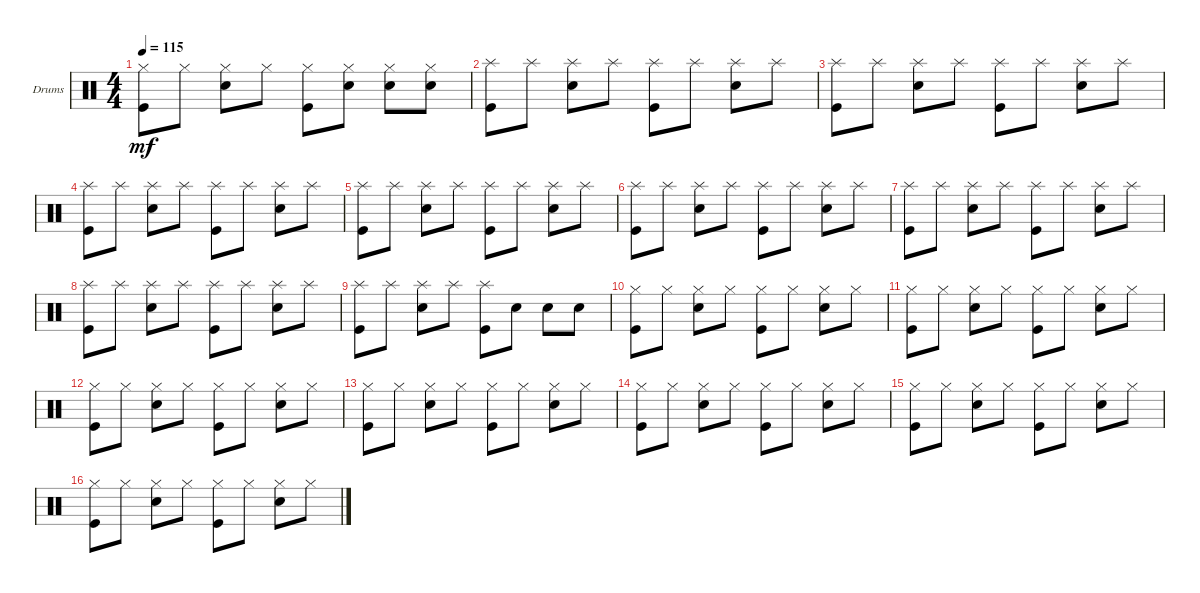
\defaultSystemsLayout 4
\bracketExtendMode groupsimilarinstruments
\firstSystemTrackNameOrientation horizontal
\otherSystemsTrackNameOrientation horizontal
\track ("Drumkit" "Drums") {instrument percussion}
\staff {score}
\articulation defaults
\ts (4 4)
\tempo 115
\clef neutral
\ks c
("Kick (hit)" "Hi-Hat (closed)").8{dy mf} "Hi-Hat (closed)".8 ("Snare (hit) 2" "Hi-Hat (closed)").8 "Hi-Hat (closed)".8 ("Kick (hit)" "Hi-Hat (closed)").8 ("Hi-Hat (closed)" "Snare (hit) 2").8 ("Snare (hit) 2" "Hi-Hat (closed)").8 ("Hi-Hat (closed)" "Snare (hit) 2").8 |
("Kick (hit)" "Splash (hit)").8 "Splash (hit)".8 ("Snare (hit) 2" "Splash (hit)").8 "Splash (hit)".8 ("Kick (hit)" "Splash (hit)").8 "Splash (hit)".8 ("Snare (hit) 2" "Splash (hit)").8 "Splash (hit)".8 |
("Kick (hit)" "Splash (hit)").8 "Splash (hit)".8 ("Snare (hit) 2" "Splash (hit)").8 "Splash (hit)".8 ("Kick (hit)" "Splash (hit)").8 "Splash (hit)".8 ("Snare (hit) 2" "Splash (hit)").8 "Splash (hit)".8 |
("Kick (hit)" "Splash (hit)").8 "Splash (hit)".8 ("Snare (hit) 2" "Splash (hit)").8 "Splash (hit)".8 ("Kick (hit)" "Splash (hit)").8 "Splash (hit)".8 ("Snare (hit) 2" "Splash (hit)").8 "Splash (hit)".8 |
("Kick (hit)" "Splash (hit)").8 "Splash (hit)".8 ("Snare (hit) 2" "Splash (hit)").8 "Splash (hit)".8 ("Kick (hit)" "Splash (hit)").8 "Splash (hit)".8 ("Snare (hit) 2" "Splash (hit)").8 "Splash (hit)".8 |
("Kick (hit)" "Splash (hit)").8 "Splash (hit)".8 ("Snare (hit) 2" "Splash (hit)").8 "Splash (hit)".8 ("Kick (hit)" "Splash (hit)").8 "Splash (hit)".8 ("Snare (hit) 2" "Splash (hit)").8 "Splash (hit)".8 |
("Kick (hit)" "Splash (hit)").8 "Splash (hit)".8 ("Snare (hit) 2" "Splash (hit)").8 "Splash (hit)".8 ("Kick (hit)" "Splash (hit)").8 "Splash (hit)".8 ("Snare (hit) 2" "Splash (hit)").8 "Splash (hit)".8 |
("Kick (hit)" "Splash (hit)").8 "Splash (hit)".8 ("Snare (hit) 2" "Splash (hit)").8 "Splash (hit)".8 ("Kick (hit)" "Splash (hit)").8 "Splash (hit)".8 ("Snare (hit) 2" "Splash (hit)").8 "Splash (hit)".8 |
("Kick (hit)" "Splash (hit)").8 "Splash (hit)".8 ("Snare (hit) 2" "Splash (hit)").8 "Splash (hit)".8 ("Kick (hit)" "Splash (hit)").8 "Snare (hit) 2".8 "Snare (hit) 2".8 "Snare (hit) 2".8 |
("Kick (hit)" "Hi-Hat (closed)").8 "Hi-Hat (closed)".8 ("Snare (hit) 2" "Hi-Hat (closed)").8 "Hi-Hat (closed)".8 ("Kick (hit)" "Hi-Hat (closed)").8 "Hi-Hat (closed)".8 ("Snare (hit) 2" "Hi-Hat (closed)").8 "Hi-Hat (closed)".8 |
("Kick (hit)" "Hi-Hat (closed)").8 "Hi-Hat (closed)".8 ("Snare (hit) 2" "Hi-Hat (closed)").8 "Hi-Hat (closed)".8 ("Kick (hit)" "Hi-Hat (closed)").8 "Hi-Hat (closed)".8 ("Snare (hit) 2" "Hi-Hat (closed)").8 "Hi-Hat (closed)".8 |
("Kick (hit)" "Hi-Hat (closed)").8 "Hi-Hat (closed)".8 ("Snare (hit) 2" "Hi-Hat (closed)").8 "Hi-Hat (closed)".8 ("Kick (hit)" "Hi-Hat (closed)").8 "Hi-Hat (closed)".8 ("Snare (hit) 2" "Hi-Hat (closed)").8 "Hi-Hat (closed)".8 |
("Kick (hit)" "Hi-Hat (closed)").8 "Hi-Hat (closed)".8 ("Snare (hit) 2" "Hi-Hat (closed)").8 "Hi-Hat (closed)".8 ("Kick (hit)" "Hi-Hat (closed)").8 "Hi-Hat (closed)".8 ("Snare (hit) 2" "Hi-Hat (closed)").8 "Hi-Hat (closed)".8 |
("Kick (hit)" "Hi-Hat (closed)").8 "Hi-Hat (closed)".8 ("Snare (hit) 2" "Hi-Hat (closed)").8 "Hi-Hat (closed)".8 ("Kick (hit)" "Hi-Hat (closed)").8 "Hi-Hat (closed)".8 ("Snare (hit) 2" "Hi-Hat (closed)").8 "Hi-Hat (closed)".8 |
("Kick (hit)" "Hi-Hat (closed)").8 "Hi-Hat (closed)".8 ("Snare (hit) 2" "Hi-Hat (closed)").8 "Hi-Hat (closed)".8 ("Kick (hit)" "Hi-Hat (closed)").8 "Hi-Hat (closed)".8 ("Snare (hit) 2" "Hi-Hat (closed)").8 "Hi-Hat (closed)".8 |
("Kick (hit)" "Hi-Hat (closed)").8 "Hi-Hat (closed)".8 ("Snare (hit) 2" "Hi-Hat (closed)").8 "Hi-Hat (closed)".8 ("Kick (hit)" "Hi-Hat (closed)").8 "Hi-Hat (closed)".8 ("Snare (hit) 2" "Hi-Hat (closed)").8 "Hi-Hat (closed)".8
